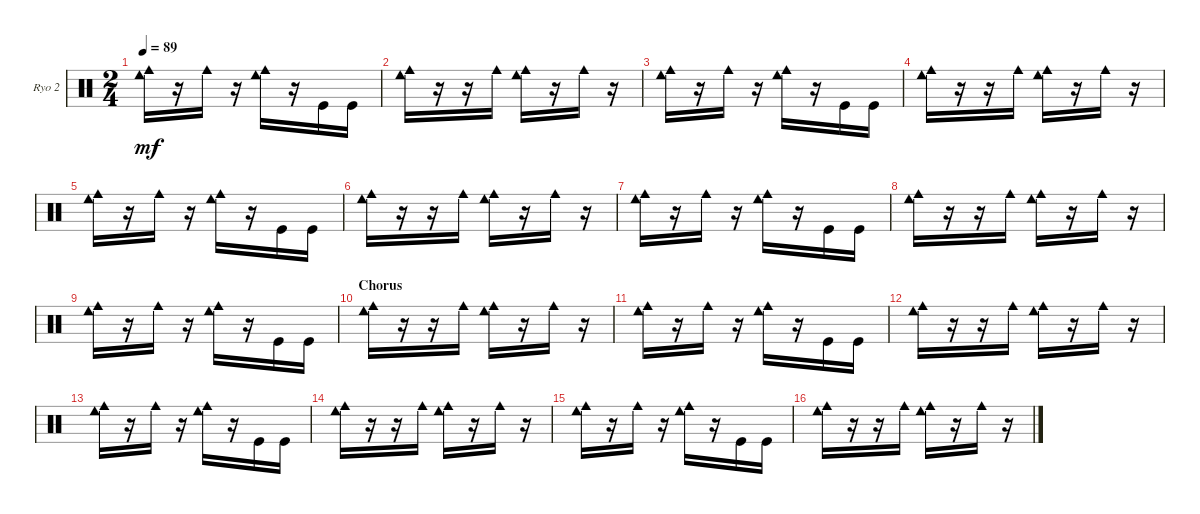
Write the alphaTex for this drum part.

\bracketExtendMode groupsimilarinstruments
\firstSystemTrackNameOrientation horizontal
\otherSystemsTrackNameOrientation horizontal
\track ("Ryo2 [Additional Drums]" "Ryo 2") {instrument percussion}
\staff {score}
\articulation defaults
\ts (2 4)
\tempo 89
\clef neutral
\ks c
("Cowbell low (hit)" "Cowbell medium (hit)").16{dy mf} r.16 "Cowbell medium (hit)".16 r.16 ("Cowbell medium (hit)" "Cowbell low (hit)").16 r.16 "Kick (hit)".16 "Kick (hit)".16 |
("Cowbell low (hit)" "Cowbell medium (hit)").16 r.16 r.16 "Cowbell medium (hit)".16 ("Cowbell medium (hit)" "Cowbell low (hit)").16 r.16 "Cowbell medium (hit)".16 r.16 |
("Cowbell low (hit)" "Cowbell medium (hit)").16 r.16 "Cowbell medium (hit)".16 r.16 ("Cowbell medium (hit)" "Cowbell low (hit)").16 r.16 "Kick (hit)".16 "Kick (hit)".16 |
("Cowbell low (hit)" "Cowbell medium (hit)").16 r.16 r.16 "Cowbell medium (hit)".16 ("Cowbell medium (hit)" "Cowbell low (hit)").16 r.16 "Cowbell medium (hit)".16 r.16 |
("Cowbell low (hit)" "Cowbell medium (hit)").16 r.16 "Cowbell medium (hit)".16 r.16 ("Cowbell medium (hit)" "Cowbell low (hit)").16 r.16 "Kick (hit)".16 "Kick (hit)".16 |
("Cowbell low (hit)" "Cowbell medium (hit)").16 r.16 r.16 "Cowbell medium (hit)".16 ("Cowbell medium (hit)" "Cowbell low (hit)").16 r.16 "Cowbell medium (hit)".16 r.16 |
("Cowbell low (hit)" "Cowbell medium (hit)").16 r.16 "Cowbell medium (hit)".16 r.16 ("Cowbell medium (hit)" "Cowbell low (hit)").16 r.16 "Kick (hit)".16 "Kick (hit)".16 |
("Cowbell low (hit)" "Cowbell medium (hit)").16 r.16 r.16 "Cowbell medium (hit)".16 ("Cowbell medium (hit)" "Cowbell low (hit)").16 r.16 "Cowbell medium (hit)".16 r.16 |
("Cowbell low (hit)" "Cowbell medium (hit)").16 r.16 "Cowbell medium (hit)".16 r.16 ("Cowbell medium (hit)" "Cowbell low (hit)").16 r.16 "Kick (hit)".16 "Kick (hit)".16 |
\section ("" "Chorus")
\scale
0.365591 ("Cowbell low (hit)" "Cowbell medium (hit)").16 r.16 r.16 "Cowbell medium (hit)".16 ("Cowbell medium (hit)" "Cowbell low (hit)").16 r.16 "Cowbell medium (hit)".16 r.16 |
\scale
0.301075 ("Cowbell low (hit)" "Cowbell medium (hit)").16 r.16 "Cowbell medium (hit)".16 r.16 ("Cowbell medium (hit)" "Cowbell low (hit)").16 r.16 "Kick (hit)".16 "Kick (hit)".16 |
\scale
0.301075 ("Cowbell low (hit)" "Cowbell medium (hit)").16 r.16 r.16 "Cowbell medium (hit)".16 ("Cowbell medium (hit)" "Cowbell low (hit)").16 r.16 "Cowbell medium (hit)".16 r.16 |
\scale
0.333333 ("Cowbell low (hit)" "Cowbell medium (hit)").16 r.16 "Cowbell medium (hit)".16 r.16 ("Cowbell medium (hit)" "Cowbell low (hit)").16 r.16 "Kick (hit)".16 "Kick (hit)".16 |
("Cowbell low (hit)" "Cowbell medium (hit)").16 r.16 r.16 "Cowbell medium (hit)".16 ("Cowbell medium (hit)" "Cowbell low (hit)").16 r.16 "Cowbell medium (hit)".16 r.16 |
("Cowbell low (hit)" "Cowbell medium (hit)").16 r.16 "Cowbell medium (hit)".16 r.16 ("Cowbell medium (hit)" "Cowbell low (hit)").16 r.16 "Kick (hit)".16 "Kick (hit)".16 |
("Cowbell low (hit)" "Cowbell medium (hit)").16 r.16 r.16 "Cowbell medium (hit)".16 ("Cowbell medium (hit)" "Cowbell low (hit)").16 r.16 "Cowbell medium (hit)".16 r.16
